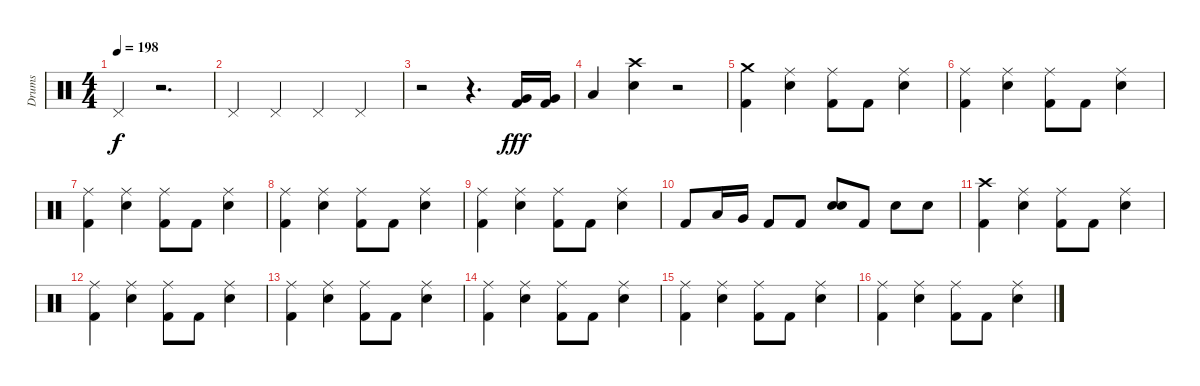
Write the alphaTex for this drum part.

\track ("Drums" "Drums") {instrument percussion}
\staff {score}
\articulation defaults
\ts (4 4)
\tempo 198
\clef neutral
\ks c "Pedal Hi-Hat (hit)".4{dy f}
r.2{d} |
"Pedal Hi-Hat (hit)".4 "Pedal Hi-Hat (hit)".4 "Pedal Hi-Hat (hit)".4 "Pedal Hi-Hat (hit)".4 |
r.2 r.4{d} ("Very Low Tom (hit)" "Kick (hit) 2").16{dy fff} ("Very Low Tom (hit)" "Kick (hit) 2").16 |
"Low Floor Tom (hit)".4 ("Crash high (hit)" "Electric Snare (hit)").4 r.2 |
("Crash medium (hit)" "Kick (hit) 2").4 ("Ride (middle)" "Electric Snare (hit)").4 ("Ride (middle)" "Kick (hit) 2").8 "Kick (hit) 2".8 ("Ride (middle)" "Electric Snare (hit)").4 |
("Ride (middle)" "Kick (hit) 2").4 ("Ride (middle)" "Electric Snare (hit)").4 ("Ride (middle)" "Kick (hit) 2").8 "Kick (hit) 2".8 ("Ride (middle)" "Electric Snare (hit)").4 |
("Ride (middle)" "Kick (hit) 2").4 ("Ride (middle)" "Electric Snare (hit)").4 ("Ride (middle)" "Kick (hit) 2").8 "Kick (hit) 2".8 ("Ride (middle)" "Electric Snare (hit)").4 |
("Ride (middle)" "Kick (hit) 2").4 ("Ride (middle)" "Electric Snare (hit)").4 ("Ride (middle)" "Kick (hit) 2").8 "Kick (hit) 2".8 ("Ride (middle)" "Electric Snare (hit)").4 |
("Ride (middle)" "Kick (hit) 2").4 ("Ride (middle)" "Electric Snare (hit)").4 ("Ride (middle)" "Kick (hit) 2").8 "Kick (hit) 2".8 ("Ride (middle)" "Electric Snare (hit)").4 |
"Kick (hit) 2".8 "Low Tom (hit)".16 "Very Low Tom (hit)".16 "Kick (hit) 2".8 "Kick (hit) 2".8 ("Electric Snare (hit)" "Electric Snare (hit)").8{bd 480} "Kick (hit) 2".8 "Electric Snare (hit)".8 "Electric Snare (hit)".8 |
("Crash high (hit)" "Kick (hit) 2").4 ("Ride (middle)" "Electric Snare (hit)").4 ("Ride (middle)" "Kick (hit) 2").8 "Kick (hit) 2".8 ("Ride (middle)" "Electric Snare (hit)").4 |
("Ride (middle)" "Kick (hit) 2").4 ("Ride (middle)" "Electric Snare (hit)").4 ("Ride (middle)" "Kick (hit) 2").8 "Kick (hit) 2".8 ("Ride (middle)" "Electric Snare (hit)").4 |
("Ride (middle)" "Kick (hit) 2").4 ("Ride (middle)" "Electric Snare (hit)").4 ("Ride (middle)" "Kick (hit) 2").8 "Kick (hit) 2".8 ("Ride (middle)" "Electric Snare (hit)").4 |
("Ride (middle)" "Kick (hit) 2").4 ("Ride (middle)" "Electric Snare (hit)").4 ("Ride (middle)" "Kick (hit) 2").8 "Kick (hit) 2".8 ("Ride (middle)" "Electric Snare (hit)").4 |
("Ride (middle)" "Kick (hit) 2").4 ("Ride (middle)" "Electric Snare (hit)").4 ("Ride (middle)" "Kick (hit) 2").8 "Kick (hit) 2".8 ("Ride (middle)" "Electric Snare (hit)").4 |
("Ride (middle)" "Kick (hit) 2").4 ("Ride (middle)" "Electric Snare (hit)").4 ("Ride (middle)" "Kick (hit) 2").8 "Kick (hit) 2".8 ("Ride (middle)" "Electric Snare (hit)").4
